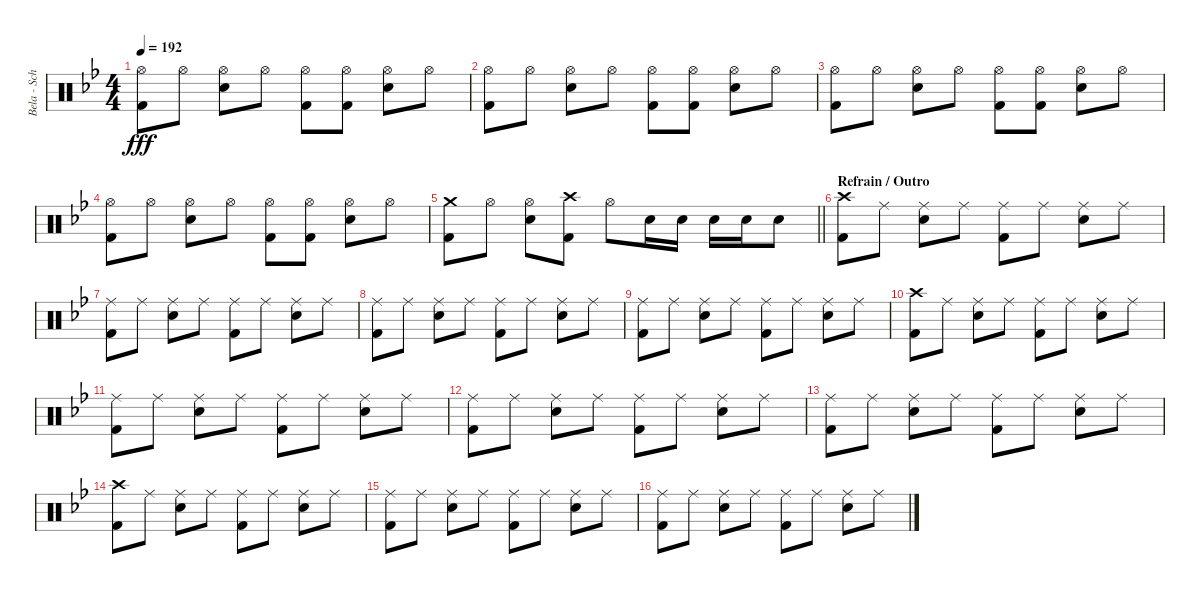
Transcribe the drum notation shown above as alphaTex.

\track ("Bela - Schlagzeug" "Bela - Sch") {instrument percussion}
\staff {score}
\articulation defaults
\ts (4 4)
\tempo 192
\clef neutral
\ks bb
("Hi-Hat (open)" "Kick (hit) 2").8{dy fff} "Hi-Hat (open)".8 ("Hi-Hat (open)" "Snare (hit) 2").8 "Hi-Hat (open)".8 ("Hi-Hat (open)" "Kick (hit) 2").8 ("Hi-Hat (open)" "Kick (hit) 2").8 ("Hi-Hat (open)" "Snare (hit) 2").8 "Hi-Hat (open)".8 |
("Hi-Hat (open)" "Kick (hit) 2").8 "Hi-Hat (open)".8 ("Hi-Hat (open)" "Snare (hit) 2").8 "Hi-Hat (open)".8 ("Hi-Hat (open)" "Kick (hit) 2").8 ("Hi-Hat (open)" "Kick (hit) 2").8 ("Hi-Hat (open)" "Snare (hit) 2").8 "Hi-Hat (open)".8 |
("Hi-Hat (open)" "Kick (hit) 2").8 "Hi-Hat (open)".8 ("Hi-Hat (open)" "Snare (hit) 2").8 "Hi-Hat (open)".8 ("Hi-Hat (open)" "Kick (hit) 2").8 ("Hi-Hat (open)" "Kick (hit) 2").8 ("Hi-Hat (open)" "Snare (hit) 2").8 "Hi-Hat (open)".8 |
("Hi-Hat (open)" "Kick (hit) 2").8 "Hi-Hat (open)".8 ("Hi-Hat (open)" "Snare (hit) 2").8 "Hi-Hat (open)".8 ("Hi-Hat (open)" "Kick (hit) 2").8 ("Hi-Hat (open)" "Kick (hit) 2").8 ("Hi-Hat (open)" "Snare (hit) 2").8 "Hi-Hat (open)".8 |
\barLineRight lightlight
("Crash medium (hit)" "Kick (hit) 2").8 "Hi-Hat (open)".8 ("Hi-Hat (open)" "Snare (hit) 2").8 ("Crash high (hit)" "Kick (hit) 2").8 "Hi-Hat (open)".8 "Snare (hit) 2".16 "Snare (hit) 2".16 "Snare (hit) 2".16 "Snare (hit) 2".16 "Snare (hit) 2".8 |
\section ("" "Refrain / Outro")
("Crash high (hit)" "Kick (hit) 2").8 "Ride (middle)".8 ("Ride (middle)" "Snare (hit) 2").8 "Ride (middle)".8 ("Ride (middle)" "Kick (hit) 2").8 "Ride (middle)".8 ("Ride (middle)" "Snare (hit) 2").8 "Ride (middle)".8 |
("Ride (middle)" "Kick (hit) 2").8 "Ride (middle)".8 ("Ride (middle)" "Snare (hit) 2").8 "Ride (middle)".8 ("Ride (middle)" "Kick (hit) 2").8 "Ride (middle)".8 ("Ride (middle)" "Snare (hit) 2").8 "Ride (middle)".8 |
("Ride (middle)" "Kick (hit) 2").8 "Ride (middle)".8 ("Ride (middle)" "Snare (hit) 2").8 "Ride (middle)".8 ("Ride (middle)" "Kick (hit) 2").8 "Ride (middle)".8 ("Ride (middle)" "Snare (hit) 2").8 "Ride (middle)".8 |
("Ride (middle)" "Kick (hit) 2").8 "Ride (middle)".8 ("Ride (middle)" "Snare (hit) 2").8 "Ride (middle)".8 ("Ride (middle)" "Kick (hit) 2").8 "Ride (middle)".8 ("Ride (middle)" "Snare (hit) 2").8 "Ride (middle)".8 |
("Crash high (hit)" "Kick (hit) 2").8 "Ride (middle)".8 ("Ride (middle)" "Snare (hit) 2").8 "Ride (middle)".8 ("Ride (middle)" "Kick (hit) 2").8 "Ride (middle)".8 ("Ride (middle)" "Snare (hit) 2").8 "Ride (middle)".8 |
("Ride (middle)" "Kick (hit) 2").8 "Ride (middle)".8 ("Ride (middle)" "Snare (hit) 2").8 "Ride (middle)".8 ("Ride (middle)" "Kick (hit) 2").8 "Ride (middle)".8 ("Ride (middle)" "Snare (hit) 2").8 "Ride (middle)".8 |
("Ride (middle)" "Kick (hit) 2").8 "Ride (middle)".8 ("Ride (middle)" "Snare (hit) 2").8 "Ride (middle)".8 ("Ride (middle)" "Kick (hit) 2").8 "Ride (middle)".8 ("Ride (middle)" "Snare (hit) 2").8 "Ride (middle)".8 |
("Ride (middle)" "Kick (hit) 2").8 "Ride (middle)".8 ("Ride (middle)" "Snare (hit) 2").8 "Ride (middle)".8 ("Ride (middle)" "Kick (hit) 2").8 "Ride (middle)".8 ("Ride (middle)" "Snare (hit) 2").8 "Ride (middle)".8 |
("Crash high (hit)" "Kick (hit) 2").8 "Ride (middle)".8 ("Ride (middle)" "Snare (hit) 2").8 "Ride (middle)".8 ("Ride (middle)" "Kick (hit) 2").8 "Ride (middle)".8 ("Ride (middle)" "Snare (hit) 2").8 "Ride (middle)".8 |
("Ride (middle)" "Kick (hit) 2").8 "Ride (middle)".8 ("Ride (middle)" "Snare (hit) 2").8 "Ride (middle)".8 ("Ride (middle)" "Kick (hit) 2").8 "Ride (middle)".8 ("Ride (middle)" "Snare (hit) 2").8 "Ride (middle)".8 |
("Ride (middle)" "Kick (hit) 2").8 "Ride (middle)".8 ("Ride (middle)" "Snare (hit) 2").8 "Ride (middle)".8 ("Ride (middle)" "Kick (hit) 2").8 "Ride (middle)".8 ("Ride (middle)" "Snare (hit) 2").8 "Ride (middle)".8
